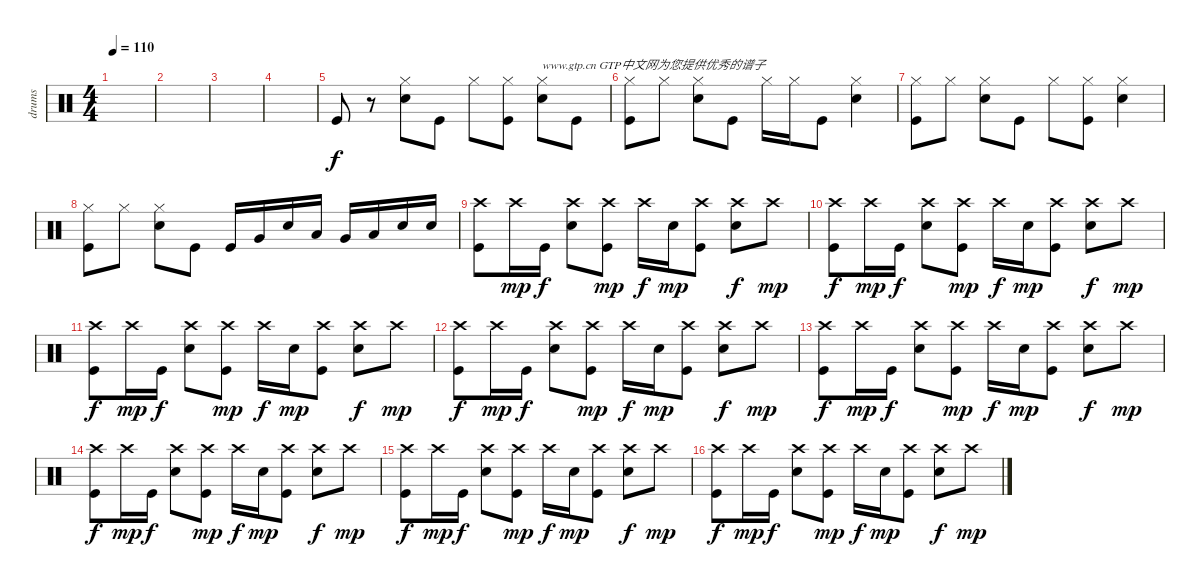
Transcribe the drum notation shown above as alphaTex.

\track ("drums" "drums") {instrument percussion}
\staff {score}
\articulation defaults
\ts (4 4)
\tempo 110
\clef neutral
\ks c
|
|
|
|
"Kick (hit)".8{volume 9} r.8 ("Hi-Hat (closed)" "Snare (hit) 2").8 "Kick (hit)".8 "Hi-Hat (closed)".8 ("Hi-Hat (closed)" "Kick (hit)").8 ("Hi-Hat (closed)" "Snare (hit) 2").8{txt "www.gtp.cn GTP中文网为您提供优秀的谱子"} "Kick (hit)".8 |
("Hi-Hat (closed)" "Kick (hit)").8 "Hi-Hat (closed)".8 ("Hi-Hat (closed)" "Snare (hit) 2").8 "Kick (hit)".8 "Hi-Hat (closed)".16 "Hi-Hat (closed)".16 "Kick (hit)".8 ("Hi-Hat (closed)" "Snare (hit) 2").4 |
("Hi-Hat (closed)" "Kick (hit)").8 "Hi-Hat (closed)".8 ("Hi-Hat (closed)" "Snare (hit) 2").8 "Kick (hit)".8 "Hi-Hat (closed)".8 ("Hi-Hat (closed)" "Kick (hit)").8 ("Hi-Hat (closed)" "Snare (hit) 2").4 |
("Hi-Hat (closed)" "Kick (hit)").8 "Hi-Hat (closed)".8 ("Hi-Hat (closed)" "Snare (hit) 2").8 "Kick (hit)".8 "Kick (hit)".16{volume 13} "Very Low Tom (hit)".16 "Electric Snare (hit)".16 "Low Tom (hit)".16 "Very Low Tom (hit)".16 "Low Tom (hit)".16 "Electric Snare (hit)".16 "Electric Snare (hit)".16 |
("Crash high (hit)" "Kick (hit)").8 "Crash high (hit)".16{dy mp} "Kick (hit)".16{dy f} ("Crash high (hit)" "Electric Snare (hit)").8 ("Crash high (hit)" "Kick (hit)").8{dy mp} "Crash high (hit)".16{dy f} "Electric Snare (hit)".16{dy mp} ("Crash high (hit)" "Kick (hit)").8 ("Crash high (hit)" "Electric Snare (hit)").8{dy f} "Crash high (hit)".8{dy mp} |
("Crash high (hit)" "Kick (hit)").8{dy f} "Crash high (hit)".16{dy mp} "Kick (hit)".16{dy f} ("Crash high (hit)" "Electric Snare (hit)").8 ("Crash high (hit)" "Kick (hit)").8{dy mp} "Crash high (hit)".16{dy f} "Electric Snare (hit)".16{dy mp} ("Crash high (hit)" "Kick (hit)").8 ("Crash high (hit)" "Electric Snare (hit)").8{dy f} "Crash high (hit)".8{dy mp} |
("Crash high (hit)" "Kick (hit)").8{dy f} "Crash high (hit)".16{dy mp} "Kick (hit)".16{dy f} ("Crash high (hit)" "Electric Snare (hit)").8 ("Crash high (hit)" "Kick (hit)").8{dy mp} "Crash high (hit)".16{dy f} "Electric Snare (hit)".16{dy mp} ("Crash high (hit)" "Kick (hit)").8 ("Crash high (hit)" "Electric Snare (hit)").8{dy f} "Crash high (hit)".8{dy mp} |
("Crash high (hit)" "Kick (hit)").8{dy f} "Crash high (hit)".16{dy mp} "Kick (hit)".16{dy f} ("Crash high (hit)" "Electric Snare (hit)").8 ("Crash high (hit)" "Kick (hit)").8{dy mp} "Crash high (hit)".16{dy f} "Electric Snare (hit)".16{dy mp} ("Crash high (hit)" "Kick (hit)").8 ("Crash high (hit)" "Electric Snare (hit)").8{dy f} "Crash high (hit)".8{dy mp} |
("Crash high (hit)" "Kick (hit)").8{dy f} "Crash high (hit)".16{dy mp} "Kick (hit)".16{dy f} ("Crash high (hit)" "Electric Snare (hit)").8 ("Crash high (hit)" "Kick (hit)").8{dy mp} "Crash high (hit)".16{dy f} "Electric Snare (hit)".16{dy mp} ("Crash high (hit)" "Kick (hit)").8 ("Crash high (hit)" "Electric Snare (hit)").8{dy f} "Crash high (hit)".8{dy mp} |
("Crash high (hit)" "Kick (hit)").8{dy f} "Crash high (hit)".16{dy mp} "Kick (hit)".16{dy f} ("Crash high (hit)" "Electric Snare (hit)").8 ("Crash high (hit)" "Kick (hit)").8{dy mp} "Crash high (hit)".16{dy f} "Electric Snare (hit)".16{dy mp} ("Crash high (hit)" "Kick (hit)").8 ("Crash high (hit)" "Electric Snare (hit)").8{dy f} "Crash high (hit)".8{dy mp} |
("Crash high (hit)" "Kick (hit)").8{dy f} "Crash high (hit)".16{dy mp} "Kick (hit)".16{dy f} ("Crash high (hit)" "Electric Snare (hit)").8 ("Crash high (hit)" "Kick (hit)").8{dy mp} "Crash high (hit)".16{dy f} "Electric Snare (hit)".16{dy mp} ("Crash high (hit)" "Kick (hit)").8 ("Crash high (hit)" "Electric Snare (hit)").8{dy f} "Crash high (hit)".8{dy mp} |
("Crash high (hit)" "Kick (hit)").8{dy f} "Crash high (hit)".16{dy mp} "Kick (hit)".16{dy f} ("Crash high (hit)" "Electric Snare (hit)").8 ("Crash high (hit)" "Kick (hit)").8{dy mp} "Crash high (hit)".16{dy f} "Electric Snare (hit)".16{dy mp} ("Crash high (hit)" "Kick (hit)").8 ("Crash high (hit)" "Electric Snare (hit)").8{dy f} "Crash high (hit)".8{dy mp}
